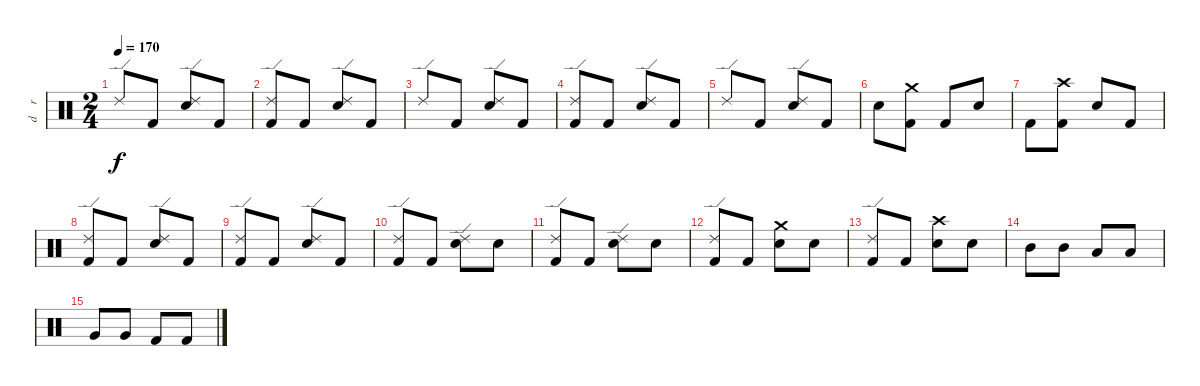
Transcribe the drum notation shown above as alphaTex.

\track ("d    r     u     m    s" "d    r    ") {instrument percussion}
\staff {score}
\articulation defaults
\ts (2 4)
\tempo 170
\clef neutral
\ks c "Ride (edge) 2".8{dy f} "Kick (hit) 2".8
("Ride (edge) 2" "Electric Snare (hit)").8 "Kick (hit) 2".8 |
("Ride (edge) 2" "Kick (hit) 2").8 "Kick (hit) 2".8 ("Ride (edge) 2" "Electric Snare (hit)").8 "Kick (hit) 2".8 |
"Ride (edge) 2".8 "Kick (hit) 2".8 ("Ride (edge) 2" "Electric Snare (hit)").8 "Kick (hit) 2".8 |
("Ride (edge) 2" "Kick (hit) 2").8 "Kick (hit) 2".8 ("Ride (edge) 2" "Electric Snare (hit)").8 "Kick (hit) 2".8 |
"Ride (edge) 2".8 "Kick (hit) 2".8 ("Ride (edge) 2" "Electric Snare (hit)").8 "Kick (hit) 2".8 |
"Electric Snare (hit)".8 ("Crash medium (hit)" "Kick (hit) 2").8 "Kick (hit) 2".8 "Electric Snare (hit)".8 |
"Kick (hit) 2".8 ("Crash high (hit)" "Kick (hit) 2").8 "Electric Snare (hit)".8 "Kick (hit) 2".8 |
("Ride (edge) 2" "Kick (hit) 2").8 "Kick (hit) 2".8 ("Ride (edge) 2" "Electric Snare (hit)").8 "Kick (hit) 2".8 |
("Ride (edge) 2" "Kick (hit) 2").8 "Kick (hit) 2".8 ("Ride (edge) 2" "Electric Snare (hit)").8 "Kick (hit) 2".8 |
("Ride (edge) 2" "Kick (hit) 2").8 "Kick (hit) 2".8 ("Ride (edge) 2" "Electric Snare (hit)").8 "Electric Snare (hit)".8 |
("Ride (edge) 2" "Kick (hit) 2").8 "Kick (hit) 2".8 ("Ride (edge) 2" "Electric Snare (hit)").8 "Electric Snare (hit)".8 |
("Ride (edge) 2" "Kick (hit) 2").8 "Kick (hit) 2".8 ("Crash medium (hit)" "Electric Snare (hit)").8 "Electric Snare (hit)".8 |
("Ride (edge) 2" "Kick (hit) 2").8 "Kick (hit) 2".8 ("Crash high (hit)" "Electric Snare (hit)").8 "Electric Snare (hit)".8 |
"Mid Tom (hit)".8 "Mid Tom (hit)".8 "Low Tom (hit)".8 "Low Tom (hit)".8 |
"Very Low Tom (hit)".8 "Very Low Tom (hit)".8 "Kick (hit) 2".8 "Kick (hit) 2".8
